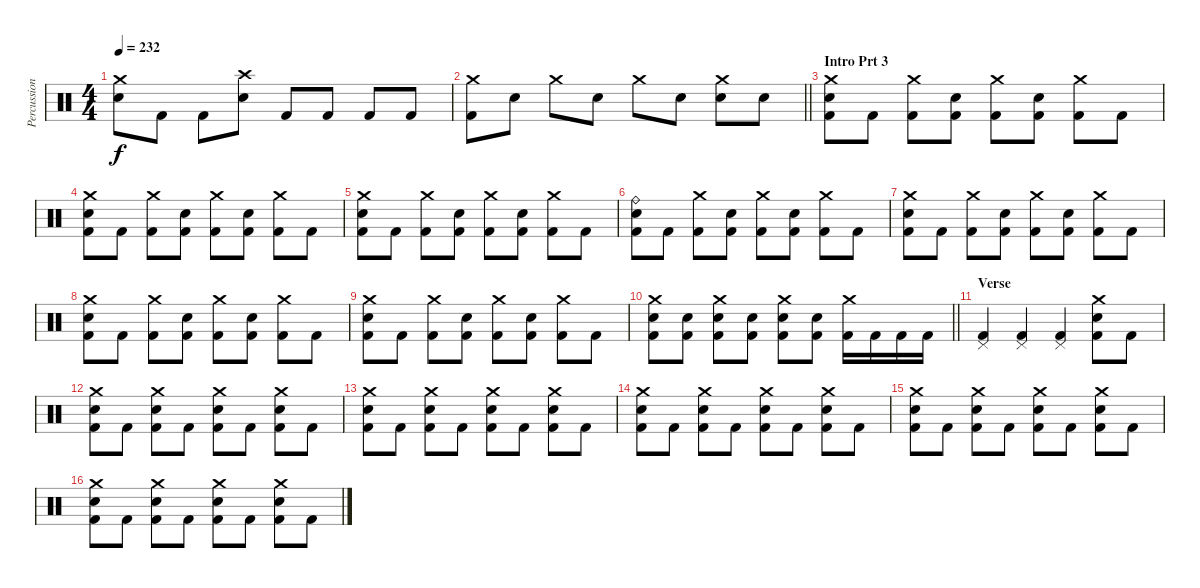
\track ("Percussion" "Percussion") {instrument percussion}
\staff {score}
\articulation defaults
\ts (4 4)
\tempo 232
\clef neutral
\ks c
("Crash medium (hit)" "Electric Snare (hit)").8{dy f} "Kick (hit) 2".8 "Kick (hit) 2".8 ("Crash high (hit)" "Electric Snare (hit)").8 "Kick (hit) 2".8 "Kick (hit) 2".8 "Kick (hit) 2".8 "Kick (hit) 2".8 |
\barLineRight lightlight
("Crash medium (hit)" "Kick (hit) 2").8 "Electric Snare (hit)".8 "Crash medium (hit)".8 "Electric Snare (hit)".8 "Crash medium (hit)".8 "Electric Snare (hit)".8 ("Crash medium (hit)" "Electric Snare (hit)").8 "Electric Snare (hit)".8 |
\section ("" "Intro Prt 3")
("Crash medium (hit)" "Electric Snare (hit)" "Kick (hit) 2").8 "Kick (hit) 2".8 ("Crash medium (hit)" "Kick (hit) 2").8 ("Electric Snare (hit)" "Kick (hit) 2").8 ("Crash medium (hit)" "Kick (hit) 2").8 ("Electric Snare (hit)" "Kick (hit) 2").8 ("Crash medium (hit)" "Kick (hit) 2").8 "Kick (hit) 2".8 |
("Crash medium (hit)" "Electric Snare (hit)" "Kick (hit) 2").8 "Kick (hit) 2".8 ("Crash medium (hit)" "Kick (hit) 2").8 ("Electric Snare (hit)" "Kick (hit) 2").8 ("Crash medium (hit)" "Kick (hit) 2").8 ("Electric Snare (hit)" "Kick (hit) 2").8 ("Crash medium (hit)" "Kick (hit) 2").8 "Kick (hit) 2".8 |
("Crash medium (hit)" "Electric Snare (hit)" "Kick (hit) 2").8 "Kick (hit) 2".8 ("Crash medium (hit)" "Kick (hit) 2").8 ("Electric Snare (hit)" "Kick (hit) 2").8 ("Crash medium (hit)" "Kick (hit) 2").8 ("Electric Snare (hit)" "Kick (hit) 2").8 ("Crash medium (hit)" "Kick (hit) 2").8 "Kick (hit) 2".8 |
("Ride (bell)" "Electric Snare (hit)" "Kick (hit) 2").8 "Kick (hit) 2".8 ("Crash medium (hit)" "Kick (hit) 2").8 ("Electric Snare (hit)" "Kick (hit) 2").8 ("Crash medium (hit)" "Kick (hit) 2").8 ("Electric Snare (hit)" "Kick (hit) 2").8 ("Crash medium (hit)" "Kick (hit) 2").8 "Kick (hit) 2".8 |
("Crash medium (hit)" "Electric Snare (hit)" "Kick (hit) 2").8 "Kick (hit) 2".8 ("Crash medium (hit)" "Kick (hit) 2").8 ("Electric Snare (hit)" "Kick (hit) 2").8 ("Crash medium (hit)" "Kick (hit) 2").8 ("Electric Snare (hit)" "Kick (hit) 2").8 ("Crash medium (hit)" "Kick (hit) 2").8 "Kick (hit) 2".8 |
("Crash medium (hit)" "Electric Snare (hit)" "Kick (hit) 2").8 "Kick (hit) 2".8 ("Crash medium (hit)" "Kick (hit) 2").8 ("Electric Snare (hit)" "Kick (hit) 2").8 ("Crash medium (hit)" "Kick (hit) 2").8 ("Electric Snare (hit)" "Kick (hit) 2").8 ("Crash medium (hit)" "Kick (hit) 2").8 "Kick (hit) 2".8 |
("Crash medium (hit)" "Electric Snare (hit)" "Kick (hit) 2").8 "Kick (hit) 2".8 ("Crash medium (hit)" "Kick (hit) 2").8 ("Electric Snare (hit)" "Kick (hit) 2").8 ("Crash medium (hit)" "Kick (hit) 2").8 ("Electric Snare (hit)" "Kick (hit) 2").8 ("Crash medium (hit)" "Kick (hit) 2").8 "Kick (hit) 2".8 |
\barLineRight lightlight
("Crash medium (hit)" "Electric Snare (hit)" "Kick (hit) 2").8 ("Electric Snare (hit)" "Kick (hit) 2").8 ("Crash medium (hit)" "Electric Snare (hit)" "Kick (hit) 2").8 ("Electric Snare (hit)" "Kick (hit) 2").8 ("Crash medium (hit)" "Electric Snare (hit)" "Kick (hit) 2").8 ("Electric Snare (hit)" "Kick (hit) 2").8 ("Crash medium (hit)" "Kick (hit) 2").16 "Kick (hit) 2".16 "Kick (hit) 2".16 "Kick (hit) 2".16 |
\section ("" "Verse")
("Pedal Hi-Hat (hit)" "Kick (hit) 2").4 ("Pedal Hi-Hat (hit)" "Kick (hit) 2").4 ("Pedal Hi-Hat (hit)" "Kick (hit) 2").4 ("Crash medium (hit)" "Electric Snare (hit)" "Kick (hit) 2").8 "Kick (hit) 2".8 |
("Crash medium (hit)" "Electric Snare (hit)" "Kick (hit) 2").8 "Kick (hit) 2".8 ("Crash medium (hit)" "Electric Snare (hit)" "Kick (hit) 2").8 "Kick (hit) 2".8 ("Crash medium (hit)" "Electric Snare (hit)" "Kick (hit) 2").8 "Kick (hit) 2".8 ("Crash medium (hit)" "Electric Snare (hit)" "Kick (hit) 2").8 "Kick (hit) 2".8 |
("Crash medium (hit)" "Electric Snare (hit)" "Kick (hit) 2").8 "Kick (hit) 2".8 ("Crash medium (hit)" "Electric Snare (hit)" "Kick (hit) 2").8 "Kick (hit) 2".8 ("Crash medium (hit)" "Electric Snare (hit)" "Kick (hit) 2").8 "Kick (hit) 2".8 ("Crash medium (hit)" "Electric Snare (hit)" "Kick (hit) 2").8 "Kick (hit) 2".8 |
("Crash medium (hit)" "Electric Snare (hit)" "Kick (hit) 2").8 "Kick (hit) 2".8 ("Crash medium (hit)" "Electric Snare (hit)" "Kick (hit) 2").8 "Kick (hit) 2".8 ("Crash medium (hit)" "Electric Snare (hit)" "Kick (hit) 2").8 "Kick (hit) 2".8 ("Crash medium (hit)" "Electric Snare (hit)" "Kick (hit) 2").8 "Kick (hit) 2".8 |
("Crash medium (hit)" "Electric Snare (hit)" "Kick (hit) 2").8 "Kick (hit) 2".8 ("Crash medium (hit)" "Electric Snare (hit)" "Kick (hit) 2").8 "Kick (hit) 2".8 ("Crash medium (hit)" "Electric Snare (hit)" "Kick (hit) 2").8 "Kick (hit) 2".8 ("Crash medium (hit)" "Electric Snare (hit)" "Kick (hit) 2").8 "Kick (hit) 2".8 |
("Crash medium (hit)" "Electric Snare (hit)" "Kick (hit) 2").8 "Kick (hit) 2".8 ("Crash medium (hit)" "Electric Snare (hit)" "Kick (hit) 2").8 "Kick (hit) 2".8 ("Crash medium (hit)" "Electric Snare (hit)" "Kick (hit) 2").8 "Kick (hit) 2".8 ("Crash medium (hit)" "Electric Snare (hit)" "Kick (hit) 2").8 "Kick (hit) 2".8
